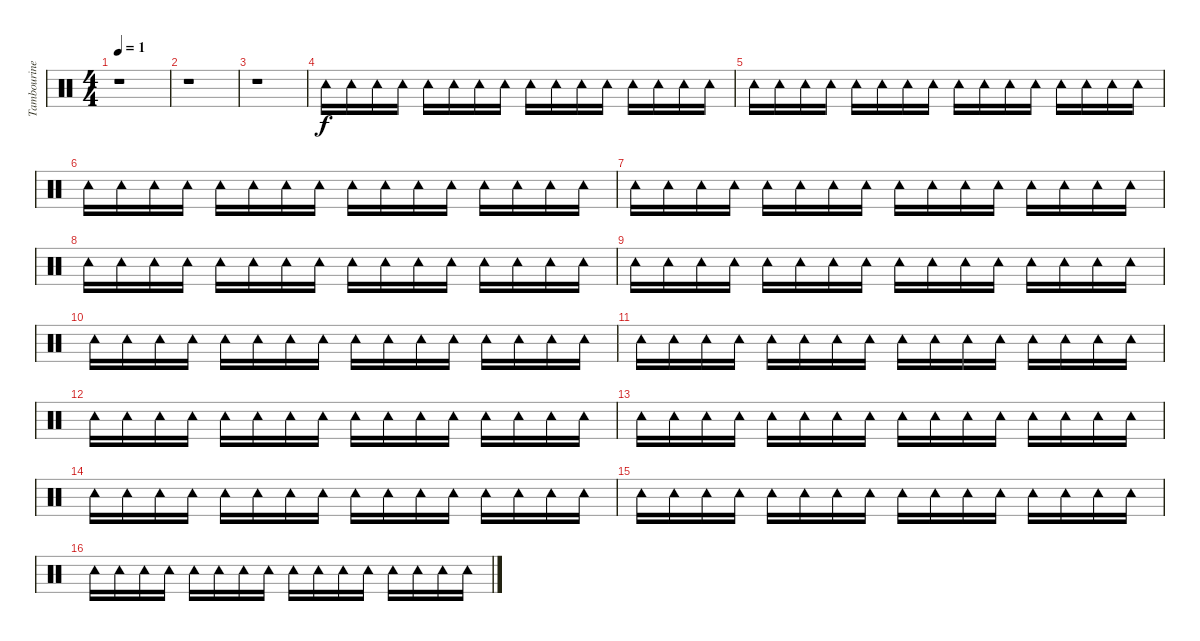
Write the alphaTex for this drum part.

\track ("Tambourine" "Tambourine") {instrument percussion}
\staff {score}
\articulation defaults
\ts (4 4)
\tempo 1
\clef neutral
\ks c
r.1{dy f} |
r.1 |
r.1 |
"Tambourine (hit)".16 "Tambourine (hit)".16 "Tambourine (hit)".16 "Tambourine (hit)".16 "Tambourine (hit)".16 "Tambourine (hit)".16 "Tambourine (hit)".16 "Tambourine (hit)".16 "Tambourine (hit)".16 "Tambourine (hit)".16 "Tambourine (hit)".16 "Tambourine (hit)".16 "Tambourine (hit)".16 "Tambourine (hit)".16 "Tambourine (hit)".16 "Tambourine (hit)".16 |
"Tambourine (hit)".16 "Tambourine (hit)".16 "Tambourine (hit)".16 "Tambourine (hit)".16 "Tambourine (hit)".16 "Tambourine (hit)".16 "Tambourine (hit)".16 "Tambourine (hit)".16 "Tambourine (hit)".16 "Tambourine (hit)".16 "Tambourine (hit)".16 "Tambourine (hit)".16 "Tambourine (hit)".16 "Tambourine (hit)".16 "Tambourine (hit)".16 "Tambourine (hit)".16 |
"Tambourine (hit)".16 "Tambourine (hit)".16 "Tambourine (hit)".16 "Tambourine (hit)".16 "Tambourine (hit)".16 "Tambourine (hit)".16 "Tambourine (hit)".16 "Tambourine (hit)".16 "Tambourine (hit)".16 "Tambourine (hit)".16 "Tambourine (hit)".16 "Tambourine (hit)".16 "Tambourine (hit)".16 "Tambourine (hit)".16 "Tambourine (hit)".16 "Tambourine (hit)".16 |
"Tambourine (hit)".16 "Tambourine (hit)".16 "Tambourine (hit)".16 "Tambourine (hit)".16 "Tambourine (hit)".16 "Tambourine (hit)".16 "Tambourine (hit)".16 "Tambourine (hit)".16 "Tambourine (hit)".16 "Tambourine (hit)".16 "Tambourine (hit)".16 "Tambourine (hit)".16 "Tambourine (hit)".16 "Tambourine (hit)".16 "Tambourine (hit)".16 "Tambourine (hit)".16 |
"Tambourine (hit)".16 "Tambourine (hit)".16 "Tambourine (hit)".16 "Tambourine (hit)".16 "Tambourine (hit)".16 "Tambourine (hit)".16 "Tambourine (hit)".16 "Tambourine (hit)".16 "Tambourine (hit)".16 "Tambourine (hit)".16 "Tambourine (hit)".16 "Tambourine (hit)".16 "Tambourine (hit)".16 "Tambourine (hit)".16 "Tambourine (hit)".16 "Tambourine (hit)".16 |
"Tambourine (hit)".16 "Tambourine (hit)".16 "Tambourine (hit)".16 "Tambourine (hit)".16 "Tambourine (hit)".16 "Tambourine (hit)".16 "Tambourine (hit)".16 "Tambourine (hit)".16 "Tambourine (hit)".16 "Tambourine (hit)".16 "Tambourine (hit)".16 "Tambourine (hit)".16 "Tambourine (hit)".16 "Tambourine (hit)".16 "Tambourine (hit)".16 "Tambourine (hit)".16 |
"Tambourine (hit)".16 "Tambourine (hit)".16 "Tambourine (hit)".16 "Tambourine (hit)".16 "Tambourine (hit)".16 "Tambourine (hit)".16 "Tambourine (hit)".16 "Tambourine (hit)".16 "Tambourine (hit)".16 "Tambourine (hit)".16 "Tambourine (hit)".16 "Tambourine (hit)".16 "Tambourine (hit)".16 "Tambourine (hit)".16 "Tambourine (hit)".16 "Tambourine (hit)".16 |
"Tambourine (hit)".16 "Tambourine (hit)".16 "Tambourine (hit)".16 "Tambourine (hit)".16 "Tambourine (hit)".16 "Tambourine (hit)".16 "Tambourine (hit)".16 "Tambourine (hit)".16 "Tambourine (hit)".16 "Tambourine (hit)".16 "Tambourine (hit)".16 "Tambourine (hit)".16 "Tambourine (hit)".16 "Tambourine (hit)".16 "Tambourine (hit)".16 "Tambourine (hit)".16 |
"Tambourine (hit)".16 "Tambourine (hit)".16 "Tambourine (hit)".16 "Tambourine (hit)".16 "Tambourine (hit)".16 "Tambourine (hit)".16 "Tambourine (hit)".16 "Tambourine (hit)".16 "Tambourine (hit)".16 "Tambourine (hit)".16 "Tambourine (hit)".16 "Tambourine (hit)".16 "Tambourine (hit)".16 "Tambourine (hit)".16 "Tambourine (hit)".16 "Tambourine (hit)".16 |
"Tambourine (hit)".16 "Tambourine (hit)".16 "Tambourine (hit)".16 "Tambourine (hit)".16 "Tambourine (hit)".16 "Tambourine (hit)".16 "Tambourine (hit)".16 "Tambourine (hit)".16 "Tambourine (hit)".16 "Tambourine (hit)".16 "Tambourine (hit)".16 "Tambourine (hit)".16 "Tambourine (hit)".16 "Tambourine (hit)".16 "Tambourine (hit)".16 "Tambourine (hit)".16 |
"Tambourine (hit)".16 "Tambourine (hit)".16 "Tambourine (hit)".16 "Tambourine (hit)".16 "Tambourine (hit)".16 "Tambourine (hit)".16 "Tambourine (hit)".16 "Tambourine (hit)".16 "Tambourine (hit)".16 "Tambourine (hit)".16 "Tambourine (hit)".16 "Tambourine (hit)".16 "Tambourine (hit)".16 "Tambourine (hit)".16 "Tambourine (hit)".16 "Tambourine (hit)".16 |
"Tambourine (hit)".16 "Tambourine (hit)".16 "Tambourine (hit)".16 "Tambourine (hit)".16 "Tambourine (hit)".16 "Tambourine (hit)".16 "Tambourine (hit)".16 "Tambourine (hit)".16 "Tambourine (hit)".16 "Tambourine (hit)".16 "Tambourine (hit)".16 "Tambourine (hit)".16 "Tambourine (hit)".16 "Tambourine (hit)".16 "Tambourine (hit)".16 "Tambourine (hit)".16 |
"Tambourine (hit)".16 "Tambourine (hit)".16 "Tambourine (hit)".16 "Tambourine (hit)".16 "Tambourine (hit)".16 "Tambourine (hit)".16 "Tambourine (hit)".16 "Tambourine (hit)".16 "Tambourine (hit)".16 "Tambourine (hit)".16 "Tambourine (hit)".16 "Tambourine (hit)".16 "Tambourine (hit)".16 "Tambourine (hit)".16 "Tambourine (hit)".16 "Tambourine (hit)".16
